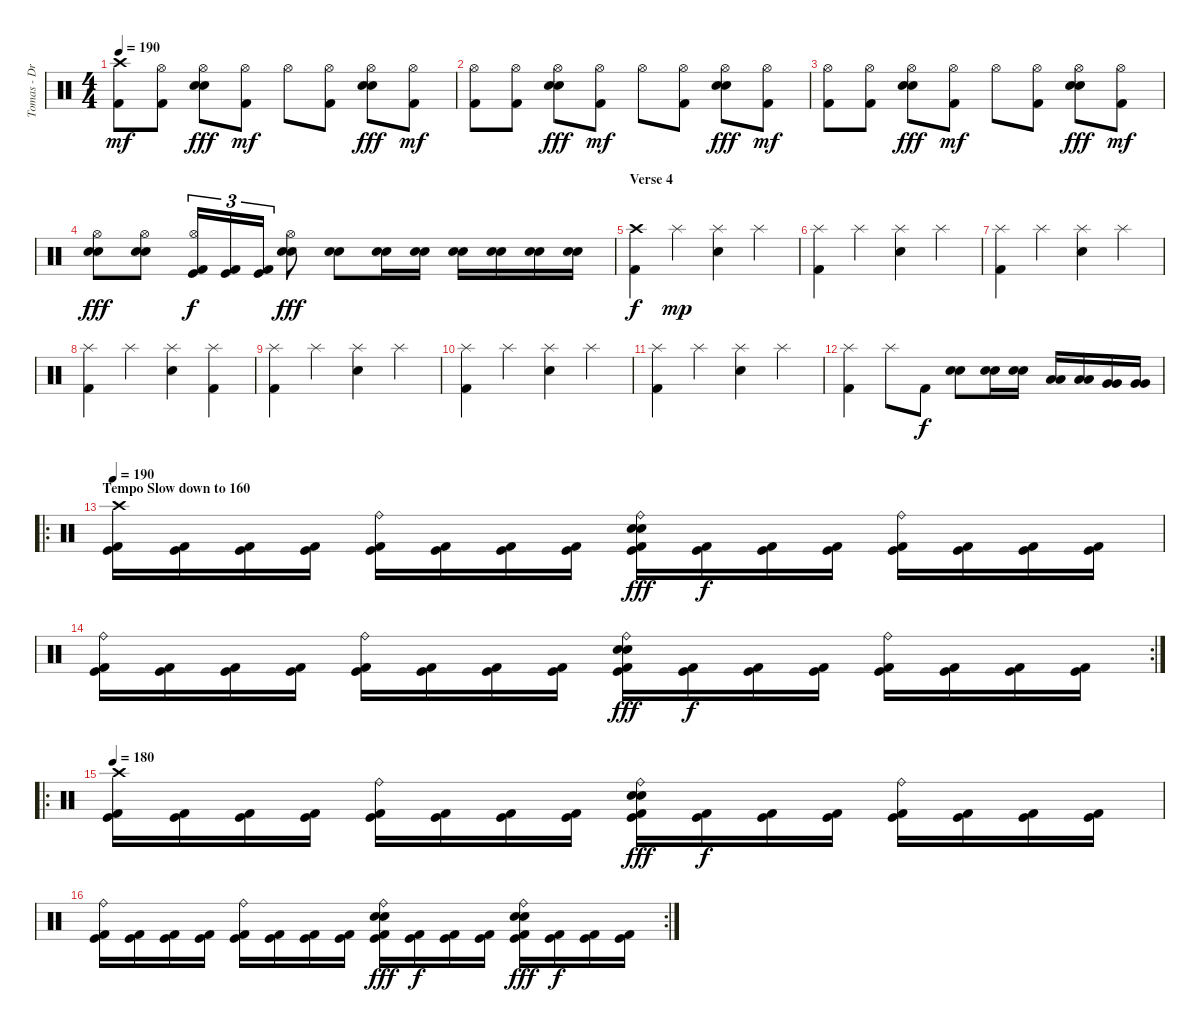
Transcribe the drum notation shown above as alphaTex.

\track ("Tomas - Drums" "Tomas - Dr") {instrument percussion}
\staff {score}
\articulation defaults
\ts (4 4)
\tempo 190
\clef neutral
\ks c
("Crash high (hit)" "Kick (hit) 2").8{dy mf} ("Hi-Hat (open)" "Kick (hit) 2").8 ("Hi-Hat (open)" "Electric Snare (hit)" "Electric Snare (hit)").8{dy fff} ("Hi-Hat (open)" "Kick (hit) 2").8{dy mf} "Hi-Hat (open)".8 ("Hi-Hat (open)" "Kick (hit) 2").8 ("Hi-Hat (open)" "Electric Snare (hit)" "Electric Snare (hit)").8{dy fff} ("Hi-Hat (open)" "Kick (hit) 2").8{dy mf} |
("Hi-Hat (open)" "Kick (hit) 2").8 ("Hi-Hat (open)" "Kick (hit) 2").8 ("Hi-Hat (open)" "Electric Snare (hit)" "Electric Snare (hit)").8{dy fff} ("Hi-Hat (open)" "Kick (hit) 2").8{dy mf} "Hi-Hat (open)".8 ("Hi-Hat (open)" "Kick (hit) 2").8 ("Hi-Hat (open)" "Electric Snare (hit)" "Electric Snare (hit)").8{dy fff} ("Hi-Hat (open)" "Kick (hit) 2").8{dy mf} |
("Hi-Hat (open)" "Kick (hit) 2").8 ("Hi-Hat (open)" "Kick (hit) 2").8 ("Hi-Hat (open)" "Electric Snare (hit)" "Electric Snare (hit)").8{dy fff} ("Hi-Hat (open)" "Kick (hit) 2").8{dy mf} "Hi-Hat (open)".8 ("Hi-Hat (open)" "Kick (hit) 2").8 ("Hi-Hat (open)" "Electric Snare (hit)" "Electric Snare (hit)").8{dy fff} ("Hi-Hat (open)" "Kick (hit) 2").8{dy mf} |
("Hi-Hat (open)" "Electric Snare (hit)" "Electric Snare (hit)").8{dy fff} ("Hi-Hat (open)" "Electric Snare (hit)" "Electric Snare (hit)").8 ("Hi-Hat (open)" "Kick (hit)" "Kick (hit) 2").16{tu (3 2) dy f} ("Kick (hit)" "Kick (hit) 2").16{tu (3 2)} ("Kick (hit)" "Kick (hit) 2").16{tu (3 2)} ("Hi-Hat (open)" "Electric Snare (hit)" "Electric Snare (hit)").8{dy fff} ("Electric Snare (hit)" "Electric Snare (hit)").8 ("Electric Snare (hit)" "Electric Snare (hit)").16 ("Electric Snare (hit)" "Electric Snare (hit)").16 ("Electric Snare (hit)" "Electric Snare (hit)").16 ("Electric Snare (hit)" "Electric Snare (hit)").16 ("Electric Snare (hit)" "Electric Snare (hit)").16 ("Electric Snare (hit)" "Electric Snare (hit)").16 |
\section ("" "Verse 4")
("Crash high (hit)" "Kick (hit) 2").4{dy f} "Splash (hit)".4{dy mp} ("Splash (hit)" "Electric Snare (hit)").4 "Splash (hit)".4 |
("Splash (hit)" "Kick (hit) 2").4 "Splash (hit)".4 ("Splash (hit)" "Electric Snare (hit)").4 "Splash (hit)".4 |
("Splash (hit)" "Kick (hit) 2").4 "Splash (hit)".4 ("Splash (hit)" "Electric Snare (hit)").4 "Splash (hit)".4 |
("Splash (hit)" "Kick (hit) 2").4 "Splash (hit)".4 ("Splash (hit)" "Electric Snare (hit)").4 ("Splash (hit)" "Kick (hit) 2").4 |
("Splash (hit)" "Kick (hit) 2").4 "Splash (hit)".4 ("Splash (hit)" "Electric Snare (hit)").4 "Splash (hit)".4 |
("Splash (hit)" "Kick (hit) 2").4 "Splash (hit)".4 ("Splash (hit)" "Electric Snare (hit)").4 "Splash (hit)".4 |
("Splash (hit)" "Kick (hit) 2").4 "Splash (hit)".4 ("Splash (hit)" "Electric Snare (hit)").4 "Splash (hit)".4 |
("Splash (hit)" "Kick (hit) 2").4 "Splash (hit)".8 "Kick (hit) 2".8{dy f} ("Electric Snare (hit)" "Electric Snare (hit)").8 ("Electric Snare (hit)" "Electric Snare (hit)").16 ("Electric Snare (hit)" "Electric Snare (hit)").16 ("Low Tom (hit)" "Low Tom (hit)").16 ("Low Tom (hit)" "Low Tom (hit)").16 ("Very Low Tom (hit)" "Very Low Tom (hit)").16 ("Very Low Tom (hit)" "Very Low Tom (hit)").16 |
\ro
\section ("" "Tempo Slow down to 160")
\tempo 190
("Crash high (hit)" "Kick (hit)" "Kick (hit) 2").16 ("Kick (hit)" "Kick (hit) 2").16 ("Kick (hit)" "Kick (hit) 2").16 ("Kick (hit)" "Kick (hit) 2").16 ("Ride (bell)" "Kick (hit)" "Kick (hit) 2").16 ("Kick (hit)" "Kick (hit) 2").16 ("Kick (hit)" "Kick (hit) 2").16 ("Kick (hit)" "Kick (hit) 2").16 ("Ride (bell)" "Electric Snare (hit)" "Electric Snare (hit)" "Kick (hit)" "Kick (hit) 2").16{dy fff} ("Kick (hit)" "Kick (hit) 2").16{dy f} ("Kick (hit)" "Kick (hit) 2").16 ("Kick (hit)" "Kick (hit) 2").16 ("Ride (bell)" "Kick (hit)" "Kick (hit) 2").16 ("Kick (hit)" "Kick (hit) 2").16 ("Kick (hit)" "Kick (hit) 2").16 ("Kick (hit)" "Kick (hit) 2").16 |
\rc 2
("Ride (bell)" "Kick (hit)" "Kick (hit) 2").16 ("Kick (hit)" "Kick (hit) 2").16 ("Kick (hit)" "Kick (hit) 2").16 ("Kick (hit)" "Kick (hit) 2").16 ("Ride (bell)" "Kick (hit)" "Kick (hit) 2").16 ("Kick (hit)" "Kick (hit) 2").16 ("Kick (hit)" "Kick (hit) 2").16 ("Kick (hit)" "Kick (hit) 2").16 ("Ride (bell)" "Electric Snare (hit)" "Electric Snare (hit)" "Kick (hit)" "Kick (hit) 2").16{dy fff} ("Kick (hit)" "Kick (hit) 2").16{dy f} ("Kick (hit)" "Kick (hit) 2").16 ("Kick (hit)" "Kick (hit) 2").16 ("Ride (bell)" "Kick (hit)" "Kick (hit) 2").16 ("Kick (hit)" "Kick (hit) 2").16 ("Kick (hit)" "Kick (hit) 2").16 ("Kick (hit)" "Kick (hit) 2").16 |
\ro
\tempo 180
("Crash high (hit)" "Kick (hit)" "Kick (hit) 2").16 ("Kick (hit)" "Kick (hit) 2").16 ("Kick (hit)" "Kick (hit) 2").16 ("Kick (hit)" "Kick (hit) 2").16 ("Ride (bell)" "Kick (hit)" "Kick (hit) 2").16 ("Kick (hit)" "Kick (hit) 2").16 ("Kick (hit)" "Kick (hit) 2").16 ("Kick (hit)" "Kick (hit) 2").16 ("Ride (bell)" "Electric Snare (hit)" "Electric Snare (hit)" "Kick (hit)" "Kick (hit) 2").16{dy fff} ("Kick (hit)" "Kick (hit) 2").16{dy f} ("Kick (hit)" "Kick (hit) 2").16 ("Kick (hit)" "Kick (hit) 2").16 ("Ride (bell)" "Kick (hit)" "Kick (hit) 2").16 ("Kick (hit)" "Kick (hit) 2").16 ("Kick (hit)" "Kick (hit) 2").16 ("Kick (hit)" "Kick (hit) 2").16 |
\rc 2
("Ride (bell)" "Kick (hit)" "Kick (hit) 2").16 ("Kick (hit)" "Kick (hit) 2").16 ("Kick (hit)" "Kick (hit) 2").16 ("Kick (hit)" "Kick (hit) 2").16 ("Ride (bell)" "Kick (hit)" "Kick (hit) 2").16 ("Kick (hit)" "Kick (hit) 2").16 ("Kick (hit)" "Kick (hit) 2").16 ("Kick (hit)" "Kick (hit) 2").16 ("Ride (bell)" "Electric Snare (hit)" "Electric Snare (hit)" "Kick (hit)" "Kick (hit) 2").16{dy fff} ("Kick (hit)" "Kick (hit) 2").16{dy f} ("Kick (hit)" "Kick (hit) 2").16 ("Kick (hit)" "Kick (hit) 2").16 ("Ride (bell)" "Electric Snare (hit)" "Electric Snare (hit)" "Kick (hit)" "Kick (hit) 2").16{dy fff} ("Kick (hit)" "Kick (hit) 2").16{dy f} ("Kick (hit)" "Kick (hit) 2").16 ("Kick (hit)" "Kick (hit) 2").16
